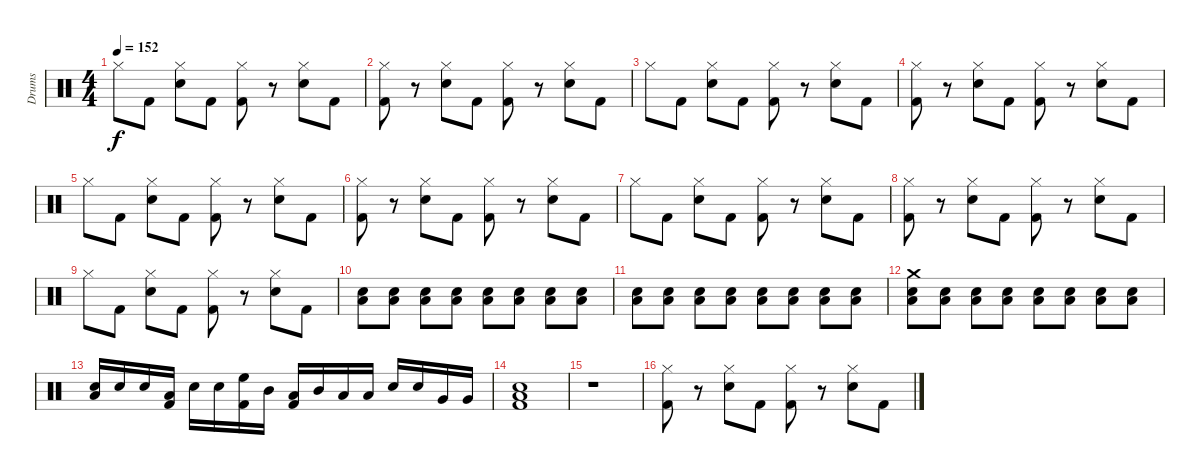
\track ("Drums" "Drums") {instrument percussion}
\staff {score}
\articulation defaults
\ts (4 4)
\tempo 152
\clef neutral
\ks c "Hi-Hat (closed)".8{dy f} "Kick (hit) 2".8
("Electric Snare (hit)" "Hi-Hat (closed)").8 "Kick (hit) 2".8 ("Kick (hit) 2" "Hi-Hat (closed)").8 r.8 ("Electric Snare (hit)" "Hi-Hat (closed)").8 "Kick (hit) 2".8 |
("Kick (hit) 2" "Hi-Hat (closed)").8 r.8 ("Electric Snare (hit)" "Hi-Hat (closed)").8 "Kick (hit) 2".8 ("Kick (hit) 2" "Hi-Hat (closed)").8 r.8 ("Electric Snare (hit)" "Hi-Hat (closed)").8 "Kick (hit) 2".8 |
"Hi-Hat (closed)".8 "Kick (hit) 2".8 ("Electric Snare (hit)" "Hi-Hat (closed)").8 "Kick (hit) 2".8 ("Kick (hit) 2" "Hi-Hat (closed)").8 r.8 ("Electric Snare (hit)" "Hi-Hat (closed)").8 "Kick (hit) 2".8 |
("Kick (hit) 2" "Hi-Hat (closed)").8 r.8 ("Electric Snare (hit)" "Hi-Hat (closed)").8 "Kick (hit) 2".8 ("Kick (hit) 2" "Hi-Hat (closed)").8 r.8 ("Electric Snare (hit)" "Hi-Hat (closed)").8 "Kick (hit) 2".8 |
"Hi-Hat (closed)".8 "Kick (hit) 2".8 ("Electric Snare (hit)" "Hi-Hat (closed)").8 "Kick (hit) 2".8 ("Kick (hit) 2" "Hi-Hat (closed)").8 r.8 ("Electric Snare (hit)" "Hi-Hat (closed)").8 "Kick (hit) 2".8 |
("Kick (hit) 2" "Hi-Hat (closed)").8 r.8 ("Electric Snare (hit)" "Hi-Hat (closed)").8 "Kick (hit) 2".8 ("Kick (hit) 2" "Hi-Hat (closed)").8 r.8 ("Electric Snare (hit)" "Hi-Hat (closed)").8 "Kick (hit) 2".8 |
"Hi-Hat (closed)".8 "Kick (hit) 2".8 ("Electric Snare (hit)" "Hi-Hat (closed)").8 "Kick (hit) 2".8 ("Kick (hit) 2" "Hi-Hat (closed)").8 r.8 ("Electric Snare (hit)" "Hi-Hat (closed)").8 "Kick (hit) 2".8 |
("Kick (hit) 2" "Hi-Hat (closed)").8 r.8 ("Electric Snare (hit)" "Hi-Hat (closed)").8 "Kick (hit) 2".8 ("Kick (hit) 2" "Hi-Hat (closed)").8 r.8 ("Electric Snare (hit)" "Hi-Hat (closed)").8 "Kick (hit) 2".8 |
"Hi-Hat (closed)".8 "Kick (hit) 2".8 ("Electric Snare (hit)" "Hi-Hat (closed)").8 "Kick (hit) 2".8 ("Kick (hit) 2" "Hi-Hat (closed)").8 r.8 ("Electric Snare (hit)" "Hi-Hat (closed)").8 "Kick (hit) 2".8 |
("Electric Snare (hit)" "Low Floor Tom (hit)").8{volume 10} ("Electric Snare (hit)" "Low Floor Tom (hit)").8 ("Electric Snare (hit)" "Low Floor Tom (hit)").8 ("Electric Snare (hit)" "Low Floor Tom (hit)").8 ("Electric Snare (hit)" "Low Floor Tom (hit)").8{volume 12} ("Electric Snare (hit)" "Low Floor Tom (hit)").8 ("Electric Snare (hit)" "Low Floor Tom (hit)").8 ("Electric Snare (hit)" "Low Floor Tom (hit)").8 |
("Electric Snare (hit)" "Low Floor Tom (hit)").8{volume 13} ("Electric Snare (hit)" "Low Floor Tom (hit)").8 ("Electric Snare (hit)" "Low Floor Tom (hit)").8 ("Electric Snare (hit)" "Low Floor Tom (hit)").8 ("Electric Snare (hit)" "Low Floor Tom (hit)").8{volume 14} ("Electric Snare (hit)" "Low Floor Tom (hit)").8 ("Electric Snare (hit)" "Low Floor Tom (hit)").8 ("Electric Snare (hit)" "Low Floor Tom (hit)").8 |
("Electric Snare (hit)" "Low Floor Tom (hit)" "Crash medium (hit)").8{volume 16} ("Electric Snare (hit)" "Low Floor Tom (hit)").8 ("Electric Snare (hit)" "Low Floor Tom (hit)").8 ("Electric Snare (hit)" "Low Floor Tom (hit)").8 ("Electric Snare (hit)" "Low Floor Tom (hit)").8 ("Electric Snare (hit)" "Low Floor Tom (hit)").8 ("Electric Snare (hit)" "Low Floor Tom (hit)").8 ("Electric Snare (hit)" "Low Floor Tom (hit)").8 |
("Low Floor Tom (hit)" "Electric Snare (hit)").16 "Electric Snare (hit)".16 "Electric Snare (hit)".16 ("Kick (hit) 2" "Low Floor Tom (hit)").16 "Electric Snare (hit)".16 "Electric Snare (hit)".16 ("Kick (hit) 2" "High Floor Tom (hit)").16 "Mid Tom (hit)".16 ("Kick (hit) 2" "Low Tom (hit)").16 "Mid Tom (hit)".16 "Low Tom (hit)".16 "Low Tom (hit)".16 "Electric Snare (hit)".16 "Electric Snare (hit)".16 "Very Low Tom (hit)".16 "Very Low Tom (hit)".16 |
("Electric Snare (hit)" "Kick (hit) 2" "Low Floor Tom (hit)").1 |
r.1 |
("Kick (hit) 2" "Hi-Hat (closed)").8 r.8 ("Electric Snare (hit)" "Hi-Hat (closed)").8 "Kick (hit) 2".8 ("Kick (hit) 2" "Hi-Hat (closed)").8 r.8 ("Electric Snare (hit)" "Hi-Hat (closed)").8 "Kick (hit) 2".8
